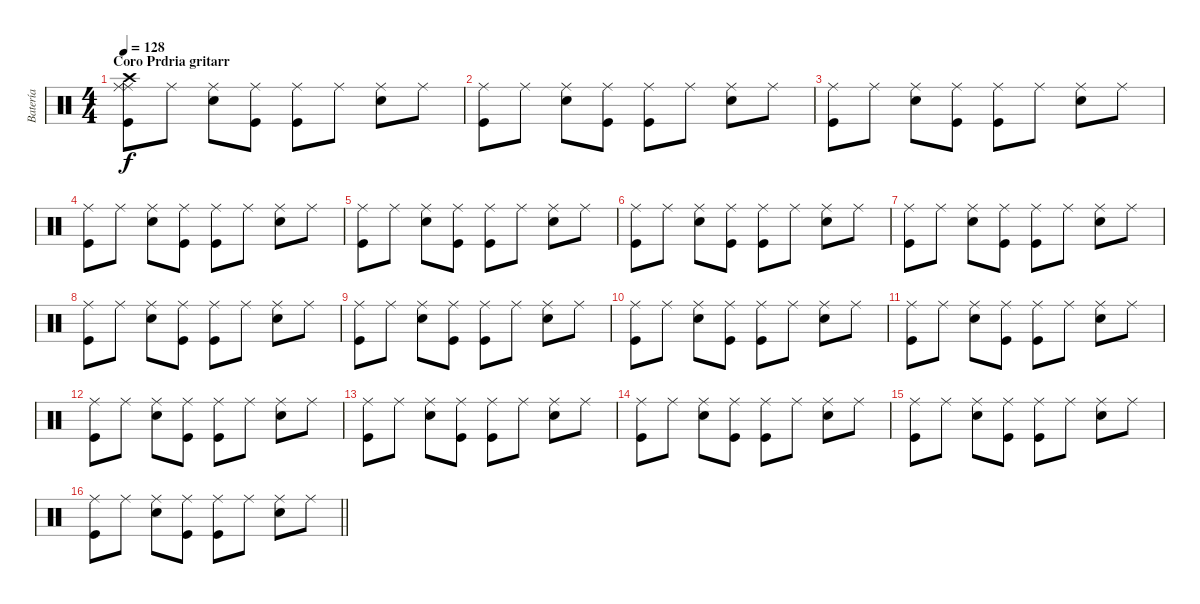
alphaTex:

\track ("Batería" "Batería") {instrument percussion}
\staff {score}
\articulation defaults
\ts (4 4)
\section ("" "Coro Prdria gritarr")
\tempo 128
\clef neutral
\ks c
("Ride (middle)" "Kick (hit)" "Ride (middle)" "Crash high (hit)").8{dy f} "Ride (middle)".8 ("Ride (middle)" "Snare (hit) 2").8 ("Ride (middle)" "Kick (hit)").8 ("Ride (middle)" "Kick (hit)").8 "Ride (middle)".8 ("Ride (middle)" "Snare (hit) 2").8 "Ride (middle)".8 |
("Ride (middle)" "Kick (hit)").8 "Ride (middle)".8 ("Ride (middle)" "Snare (hit) 2").8 ("Ride (middle)" "Kick (hit)").8 ("Ride (middle)" "Kick (hit)").8 "Ride (middle)".8 ("Ride (middle)" "Snare (hit) 2").8 "Ride (middle)".8 |
("Ride (middle)" "Kick (hit)").8 "Ride (middle)".8 ("Ride (middle)" "Snare (hit) 2").8 ("Ride (middle)" "Kick (hit)").8 ("Ride (middle)" "Kick (hit)").8 "Ride (middle)".8 ("Ride (middle)" "Snare (hit) 2").8 "Ride (middle)".8 |
("Ride (middle)" "Kick (hit)").8 "Ride (middle)".8 ("Ride (middle)" "Snare (hit) 2").8 ("Ride (middle)" "Kick (hit)").8 ("Ride (middle)" "Kick (hit)").8 "Ride (middle)".8 ("Ride (middle)" "Snare (hit) 2").8 "Ride (middle)".8 |
("Ride (middle)" "Kick (hit)").8 "Ride (middle)".8 ("Ride (middle)" "Snare (hit) 2").8 ("Ride (middle)" "Kick (hit)").8 ("Ride (middle)" "Kick (hit)").8 "Ride (middle)".8 ("Ride (middle)" "Snare (hit) 2").8 "Ride (middle)".8 |
("Ride (middle)" "Kick (hit)").8 "Ride (middle)".8 ("Ride (middle)" "Snare (hit) 2").8 ("Ride (middle)" "Kick (hit)").8 ("Ride (middle)" "Kick (hit)").8 "Ride (middle)".8 ("Ride (middle)" "Snare (hit) 2").8 "Ride (middle)".8 |
("Ride (middle)" "Kick (hit)").8 "Ride (middle)".8 ("Ride (middle)" "Snare (hit) 2").8 ("Ride (middle)" "Kick (hit)").8 ("Ride (middle)" "Kick (hit)").8 "Ride (middle)".8 ("Ride (middle)" "Snare (hit) 2").8 "Ride (middle)".8 |
("Ride (middle)" "Kick (hit)").8 "Ride (middle)".8 ("Ride (middle)" "Snare (hit) 2").8 ("Ride (middle)" "Kick (hit)").8 ("Ride (middle)" "Kick (hit)").8 "Ride (middle)".8 ("Ride (middle)" "Snare (hit) 2").8 "Ride (middle)".8 |
("Ride (middle)" "Kick (hit)").8 "Ride (middle)".8 ("Ride (middle)" "Snare (hit) 2").8 ("Ride (middle)" "Kick (hit)").8 ("Ride (middle)" "Kick (hit)").8 "Ride (middle)".8 ("Ride (middle)" "Snare (hit) 2").8 "Ride (middle)".8 |
("Ride (middle)" "Kick (hit)").8 "Ride (middle)".8 ("Ride (middle)" "Snare (hit) 2").8 ("Ride (middle)" "Kick (hit)").8 ("Ride (middle)" "Kick (hit)").8 "Ride (middle)".8 ("Ride (middle)" "Snare (hit) 2").8 "Ride (middle)".8 |
("Ride (middle)" "Kick (hit)").8 "Ride (middle)".8 ("Ride (middle)" "Snare (hit) 2").8 ("Ride (middle)" "Kick (hit)").8 ("Ride (middle)" "Kick (hit)").8 "Ride (middle)".8 ("Ride (middle)" "Snare (hit) 2").8 "Ride (middle)".8 |
("Ride (middle)" "Kick (hit)").8 "Ride (middle)".8 ("Ride (middle)" "Snare (hit) 2").8 ("Ride (middle)" "Kick (hit)").8 ("Ride (middle)" "Kick (hit)").8 "Ride (middle)".8 ("Ride (middle)" "Snare (hit) 2").8 "Ride (middle)".8 |
("Ride (middle)" "Kick (hit)").8 "Ride (middle)".8 ("Ride (middle)" "Snare (hit) 2").8 ("Ride (middle)" "Kick (hit)").8 ("Ride (middle)" "Kick (hit)").8 "Ride (middle)".8 ("Ride (middle)" "Snare (hit) 2").8 "Ride (middle)".8 |
("Ride (middle)" "Kick (hit)").8 "Ride (middle)".8 ("Ride (middle)" "Snare (hit) 2").8 ("Ride (middle)" "Kick (hit)").8 ("Ride (middle)" "Kick (hit)").8 "Ride (middle)".8 ("Ride (middle)" "Snare (hit) 2").8 "Ride (middle)".8 |
("Ride (middle)" "Kick (hit)").8 "Ride (middle)".8 ("Ride (middle)" "Snare (hit) 2").8 ("Ride (middle)" "Kick (hit)").8 ("Ride (middle)" "Kick (hit)").8 "Ride (middle)".8 ("Ride (middle)" "Snare (hit) 2").8 "Ride (middle)".8 |
\barLineRight lightlight
("Ride (middle)" "Kick (hit)").8 "Ride (middle)".8 ("Ride (middle)" "Snare (hit) 2").8 ("Ride (middle)" "Kick (hit)").8 ("Ride (middle)" "Kick (hit)").8 "Ride (middle)".8 ("Ride (middle)" "Snare (hit) 2").8 "Ride (middle)".8
